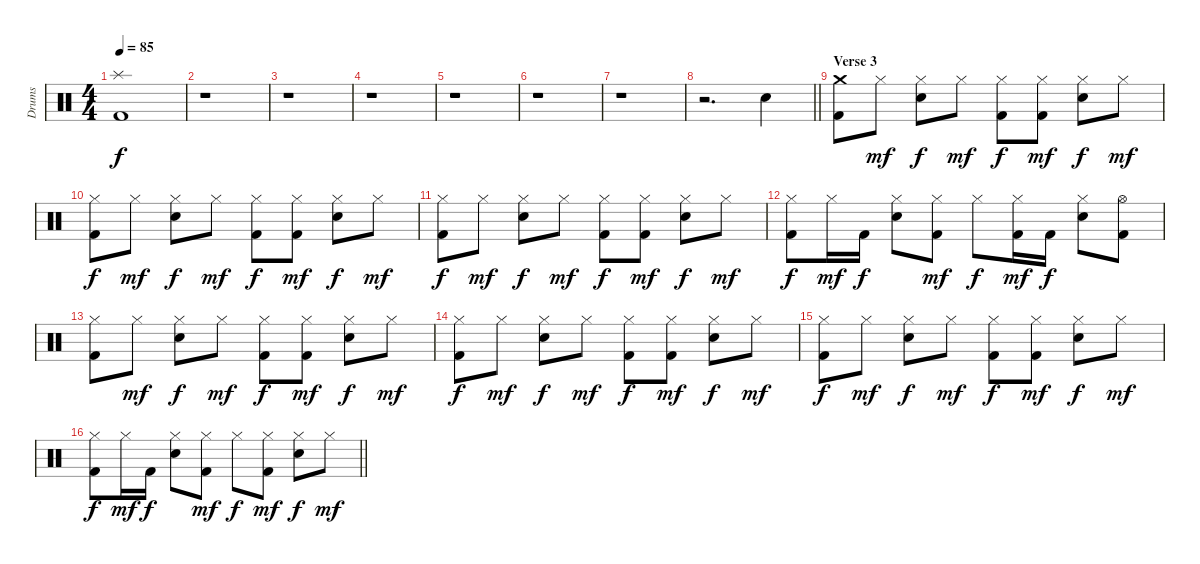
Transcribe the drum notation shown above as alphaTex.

\track ("Drums" "Drums") {instrument percussion}
\staff {score}
\articulation defaults
\ts (4 4)
\tempo 85
\clef neutral
\ks c
("Splash (hit)" "Kick (hit) 2").1{dy f} |
r.1 |
r.1 |
r.1 |
r.1 |
r.1 |
r.1 |
\barLineRight lightlight
r.2{d} "Snare (hit) 2".4 |
\section ("" "Verse 3")
("Crash medium (hit)" "Kick (hit) 2").8 "Hi-Hat (closed)".8{dy mf} ("Hi-Hat (closed)" "Snare (hit) 2").8{dy f} "Hi-Hat (closed)".8{dy mf} ("Hi-Hat (closed)" "Kick (hit) 2").8{dy f} ("Hi-Hat (closed)" "Kick (hit) 2").8{dy mf} ("Hi-Hat (closed)" "Snare (hit) 2").8{dy f} "Hi-Hat (closed)".8{dy mf} |
("Hi-Hat (closed)" "Kick (hit) 2").8{dy f} "Hi-Hat (closed)".8{dy mf} ("Hi-Hat (closed)" "Snare (hit) 2").8{dy f} "Hi-Hat (closed)".8{dy mf} ("Hi-Hat (closed)" "Kick (hit) 2").8{dy f} ("Hi-Hat (closed)" "Kick (hit) 2").8{dy mf} ("Hi-Hat (closed)" "Snare (hit) 2").8{dy f} "Hi-Hat (closed)".8{dy mf} |
("Hi-Hat (closed)" "Kick (hit) 2").8{dy f} "Hi-Hat (closed)".8{dy mf} ("Hi-Hat (closed)" "Snare (hit) 2").8{dy f} "Hi-Hat (closed)".8{dy mf} ("Hi-Hat (closed)" "Kick (hit) 2").8{dy f} ("Hi-Hat (closed)" "Kick (hit) 2").8{dy mf} ("Hi-Hat (closed)" "Snare (hit) 2").8{dy f} "Hi-Hat (closed)".8{dy mf} |
("Hi-Hat (closed)" "Kick (hit) 2").8{dy f} "Hi-Hat (closed)".16{dy mf} "Kick (hit) 2".16{dy f} ("Hi-Hat (closed)" "Snare (hit) 2").8 ("Hi-Hat (closed)" "Kick (hit) 2").8{dy mf} "Hi-Hat (closed)".8{dy f} ("Hi-Hat (closed)" "Kick (hit) 2").16{dy mf} "Kick (hit) 2".16{dy f} ("Hi-Hat (closed)" "Snare (hit) 2").8 ("Hi-Hat (open)" "Kick (hit) 2").8 |
("Hi-Hat (closed)" "Kick (hit) 2").8 "Hi-Hat (closed)".8{dy mf} ("Hi-Hat (closed)" "Snare (hit) 2").8{dy f} "Hi-Hat (closed)".8{dy mf} ("Hi-Hat (closed)" "Kick (hit) 2").8{dy f} ("Hi-Hat (closed)" "Kick (hit) 2").8{dy mf} ("Hi-Hat (closed)" "Snare (hit) 2").8{dy f} "Hi-Hat (closed)".8{dy mf} |
("Hi-Hat (closed)" "Kick (hit) 2").8{dy f} "Hi-Hat (closed)".8{dy mf} ("Hi-Hat (closed)" "Snare (hit) 2").8{dy f} "Hi-Hat (closed)".8{dy mf} ("Hi-Hat (closed)" "Kick (hit) 2").8{dy f} ("Hi-Hat (closed)" "Kick (hit) 2").8{dy mf} ("Hi-Hat (closed)" "Snare (hit) 2").8{dy f} "Hi-Hat (closed)".8{dy mf} |
("Hi-Hat (closed)" "Kick (hit) 2").8{dy f} "Hi-Hat (closed)".8{dy mf} ("Hi-Hat (closed)" "Snare (hit) 2").8{dy f} "Hi-Hat (closed)".8{dy mf} ("Hi-Hat (closed)" "Kick (hit) 2").8{dy f} ("Hi-Hat (closed)" "Kick (hit) 2").8{dy mf} ("Hi-Hat (closed)" "Snare (hit) 2").8{dy f} "Hi-Hat (closed)".8{dy mf} |
\barLineRight lightlight
("Hi-Hat (closed)" "Kick (hit) 2").8{dy f} "Hi-Hat (closed)".16{dy mf} "Kick (hit) 2".16{dy f} ("Hi-Hat (closed)" "Snare (hit) 2").8 ("Hi-Hat (closed)" "Kick (hit) 2").8{dy mf} "Hi-Hat (closed)".8{dy f} ("Hi-Hat (closed)" "Kick (hit) 2").8{dy mf} ("Hi-Hat (closed)" "Snare (hit) 2").8{dy f} "Hi-Hat (closed)".8{dy mf}
